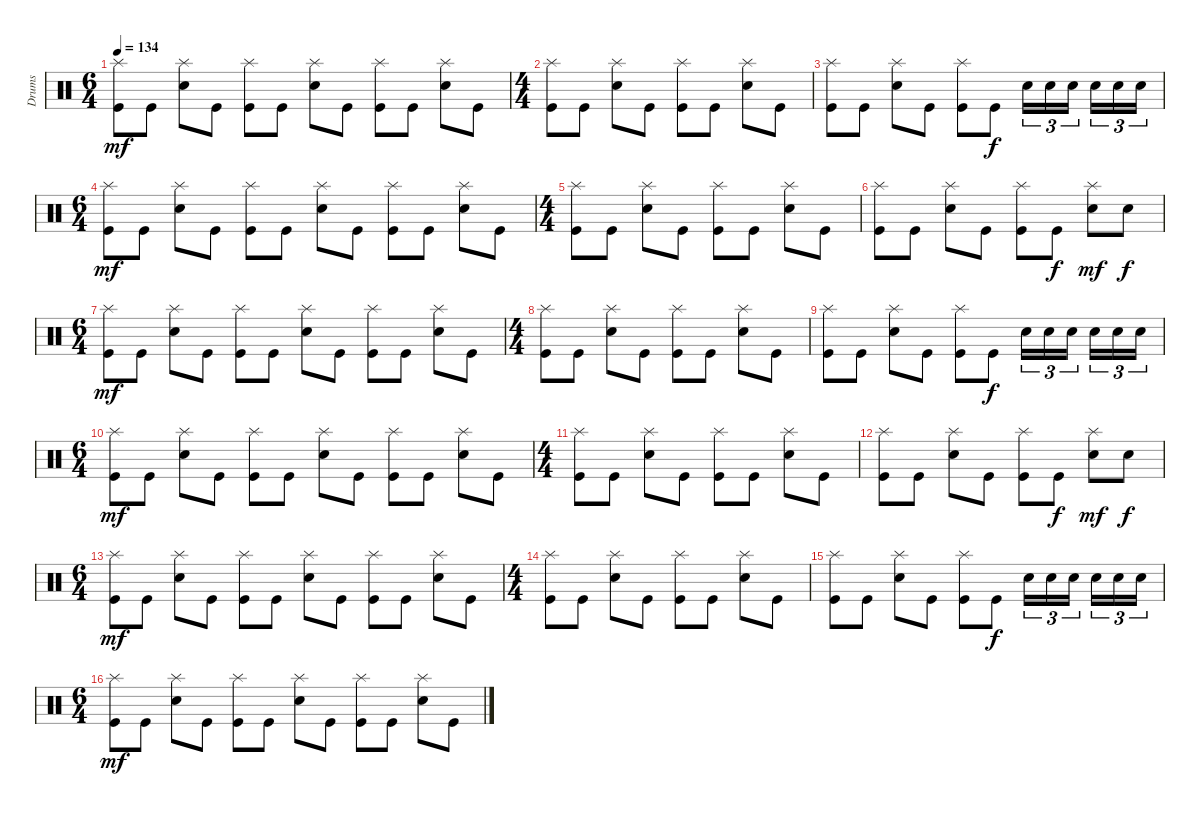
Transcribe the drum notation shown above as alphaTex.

\track ("Drums" "Drums") {instrument percussion}
\staff {score}
\articulation defaults
\ts (6 4)
\tempo 134
\clef neutral
\ks c
("Splash (hit)" "Kick (hit)").8{dy mf} "Kick (hit)".8 ("Splash (hit)" "Snare (hit) 2").8 "Kick (hit)".8 ("Splash (hit)" "Kick (hit)").8 "Kick (hit)".8 ("Splash (hit)" "Snare (hit) 2").8 "Kick (hit)".8 ("Splash (hit)" "Kick (hit)").8 "Kick (hit)".8 ("Splash (hit)" "Snare (hit) 2").8 "Kick (hit)".8 |
\ts (4 4)
("Splash (hit)" "Kick (hit)").8 "Kick (hit)".8 ("Splash (hit)" "Snare (hit) 2").8 "Kick (hit)".8 ("Splash (hit)" "Kick (hit)").8 "Kick (hit)".8 ("Splash (hit)" "Snare (hit) 2").8 "Kick (hit)".8 |
("Splash (hit)" "Kick (hit)").8 "Kick (hit)".8 ("Splash (hit)" "Snare (hit) 2").8 "Kick (hit)".8 ("Splash (hit)" "Kick (hit)").8 "Kick (hit)".8{dy f} "Snare (hit) 2".16{tu (3 2)} "Snare (hit) 2".16{tu (3 2)} "Snare (hit) 2".16{tu (3 2) beam splitsecondary} "Snare (hit) 2".16{tu (3 2)} "Snare (hit) 2".16{tu (3 2)} "Snare (hit) 2".16{tu (3 2)} |
\ts (6 4)
("Splash (hit)" "Kick (hit)").8{dy mf} "Kick (hit)".8 ("Splash (hit)" "Snare (hit) 2").8 "Kick (hit)".8 ("Splash (hit)" "Kick (hit)").8 "Kick (hit)".8 ("Splash (hit)" "Snare (hit) 2").8 "Kick (hit)".8 ("Splash (hit)" "Kick (hit)").8 "Kick (hit)".8 ("Splash (hit)" "Snare (hit) 2").8 "Kick (hit)".8 |
\ts (4 4)
("Splash (hit)" "Kick (hit)").8 "Kick (hit)".8 ("Splash (hit)" "Snare (hit) 2").8 "Kick (hit)".8 ("Splash (hit)" "Kick (hit)").8 "Kick (hit)".8 ("Splash (hit)" "Snare (hit) 2").8 "Kick (hit)".8 |
("Splash (hit)" "Kick (hit)").8 "Kick (hit)".8 ("Splash (hit)" "Snare (hit) 2").8 "Kick (hit)".8 ("Splash (hit)" "Kick (hit)").8 "Kick (hit)".8{dy f} ("Splash (hit)" "Snare (hit) 2").8{dy mf} "Snare (hit) 2".8{dy f} |
\ts (6 4)
("Splash (hit)" "Kick (hit)").8{dy mf} "Kick (hit)".8 ("Splash (hit)" "Snare (hit) 2").8 "Kick (hit)".8 ("Splash (hit)" "Kick (hit)").8 "Kick (hit)".8 ("Splash (hit)" "Snare (hit) 2").8 "Kick (hit)".8 ("Splash (hit)" "Kick (hit)").8 "Kick (hit)".8 ("Splash (hit)" "Snare (hit) 2").8 "Kick (hit)".8 |
\ts (4 4)
("Splash (hit)" "Kick (hit)").8 "Kick (hit)".8 ("Splash (hit)" "Snare (hit) 2").8 "Kick (hit)".8 ("Splash (hit)" "Kick (hit)").8 "Kick (hit)".8 ("Splash (hit)" "Snare (hit) 2").8 "Kick (hit)".8 |
("Splash (hit)" "Kick (hit)").8 "Kick (hit)".8 ("Splash (hit)" "Snare (hit) 2").8 "Kick (hit)".8 ("Splash (hit)" "Kick (hit)").8 "Kick (hit)".8{dy f} "Snare (hit) 2".16{tu (3 2)} "Snare (hit) 2".16{tu (3 2)} "Snare (hit) 2".16{tu (3 2) beam splitsecondary} "Snare (hit) 2".16{tu (3 2)} "Snare (hit) 2".16{tu (3 2)} "Snare (hit) 2".16{tu (3 2)} |
\ts (6 4)
("Splash (hit)" "Kick (hit)").8{dy mf} "Kick (hit)".8 ("Splash (hit)" "Snare (hit) 2").8 "Kick (hit)".8 ("Splash (hit)" "Kick (hit)").8 "Kick (hit)".8 ("Splash (hit)" "Snare (hit) 2").8 "Kick (hit)".8 ("Splash (hit)" "Kick (hit)").8 "Kick (hit)".8 ("Splash (hit)" "Snare (hit) 2").8 "Kick (hit)".8 |
\ts (4 4)
("Splash (hit)" "Kick (hit)").8 "Kick (hit)".8 ("Splash (hit)" "Snare (hit) 2").8 "Kick (hit)".8 ("Splash (hit)" "Kick (hit)").8 "Kick (hit)".8 ("Splash (hit)" "Snare (hit) 2").8 "Kick (hit)".8 |
("Splash (hit)" "Kick (hit)").8 "Kick (hit)".8 ("Splash (hit)" "Snare (hit) 2").8 "Kick (hit)".8 ("Splash (hit)" "Kick (hit)").8 "Kick (hit)".8{dy f} ("Splash (hit)" "Snare (hit) 2").8{dy mf} "Snare (hit) 2".8{dy f} |
\ts (6 4)
("Splash (hit)" "Kick (hit)").8{dy mf} "Kick (hit)".8 ("Splash (hit)" "Snare (hit) 2").8 "Kick (hit)".8 ("Splash (hit)" "Kick (hit)").8 "Kick (hit)".8 ("Splash (hit)" "Snare (hit) 2").8 "Kick (hit)".8 ("Splash (hit)" "Kick (hit)").8 "Kick (hit)".8 ("Splash (hit)" "Snare (hit) 2").8 "Kick (hit)".8 |
\ts (4 4)
("Splash (hit)" "Kick (hit)").8 "Kick (hit)".8 ("Splash (hit)" "Snare (hit) 2").8 "Kick (hit)".8 ("Splash (hit)" "Kick (hit)").8 "Kick (hit)".8 ("Splash (hit)" "Snare (hit) 2").8 "Kick (hit)".8 |
("Splash (hit)" "Kick (hit)").8 "Kick (hit)".8 ("Splash (hit)" "Snare (hit) 2").8 "Kick (hit)".8 ("Splash (hit)" "Kick (hit)").8 "Kick (hit)".8{dy f} "Snare (hit) 2".16{tu (3 2)} "Snare (hit) 2".16{tu (3 2)} "Snare (hit) 2".16{tu (3 2) beam splitsecondary} "Snare (hit) 2".16{tu (3 2)} "Snare (hit) 2".16{tu (3 2)} "Snare (hit) 2".16{tu (3 2)} |
\ts (6 4)
("Splash (hit)" "Kick (hit)").8{dy mf} "Kick (hit)".8 ("Splash (hit)" "Snare (hit) 2").8 "Kick (hit)".8 ("Splash (hit)" "Kick (hit)").8 "Kick (hit)".8 ("Splash (hit)" "Snare (hit) 2").8 "Kick (hit)".8 ("Splash (hit)" "Kick (hit)").8 "Kick (hit)".8 ("Splash (hit)" "Snare (hit) 2").8 "Kick (hit)".8
